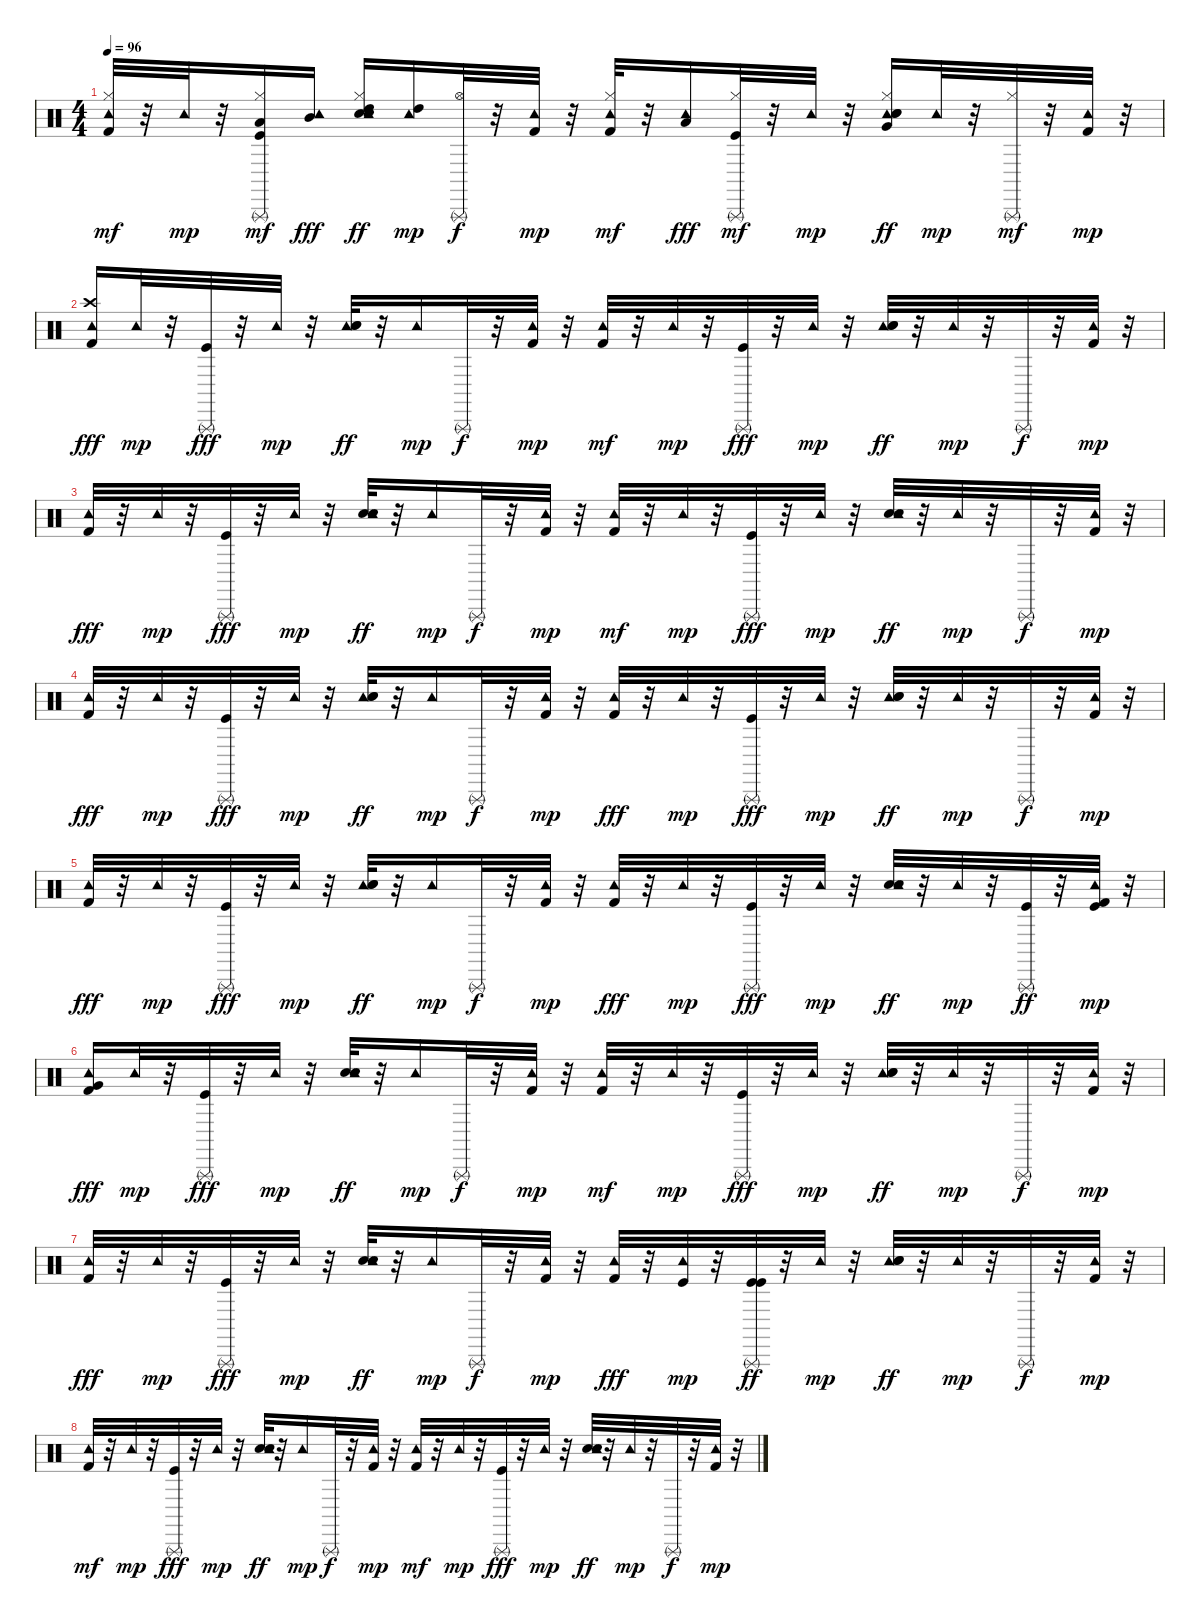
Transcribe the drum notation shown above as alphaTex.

\track "" {instrument percussion}
\staff {score}
\articulation defaults
\ts (4 4)
\tempo 96
\clef neutral
\ks c
("Hi-Hat (closed)" "Kick (hit) 2" "Tambourine (hit)").32{dy mf} r.32 "Tambourine (hit)".32{dy mp} r.32 ("Low Tom (hit)" "Kick (hit)" "Triangle (rnute)" "Hi-Hat (closed)").16{dy mf} ("Tambourine (hit)" "Mid Tom (hit)").16{dy fff} ("Snare (hit) 2" "Tambourine (hit)" "Hi-Hat (closed)" "High Tom (hit)" "Hand Clap (hit)").16{dy ff} ("High Tom (hit)" "Tambourine (hit)").16{dy mp} ("Triangle (rnute)" "Hi-Hat (open)").32{dy f} r.32 ("Tambourine (hit)" "Kick (hit) 2").32{dy mp} r.32 ("Hi-Hat (closed)" "Kick (hit) 2" "Tambourine (hit)").32{dy mf} r.32 ("Tambourine (hit)" "Low Tom (hit)").16{dy fff} ("Kick (hit)" "Triangle (rnute)" "Hi-Hat (closed)").32{dy mf} r.32 "Tambourine (hit)".32{dy mp} r.32 ("Hi-Hat (closed)" "Tambourine (hit)" "Very Low Tom (hit)" "Snare (hit) 2" "Hand Clap (hit)").16{dy ff} "Tambourine (hit)".32{dy mp} r.32 ("Hi-Hat (closed)" "Triangle (rnute)").32{dy mf} r.32 ("Tambourine (hit)" "Kick (hit) 2").32{dy mp} r.32 |
("Tambourine (hit)" "Kick (hit) 2" "Crash high (hit)").16{dy fff} "Tambourine (hit)".32{dy mp} r.32 ("Triangle (rnute)" "Kick (hit)").32{dy fff} r.32 "Tambourine (hit)".32{dy mp} r.32 ("Tambourine (hit)" "Electric Snare (hit)" "Hand Clap (hit)").32{dy ff} r.32 "Tambourine (hit)".16{dy mp} "Triangle (rnute)".32{dy f} r.32 ("Kick (hit) 2" "Tambourine (hit)").32{dy mp} r.32 ("Kick (hit) 2" "Tambourine (hit)").32{dy mf} r.32 "Tambourine (hit)".32{dy mp} r.32 ("Kick (hit)" "Triangle (rnute)").32{dy fff} r.32 "Tambourine (hit)".32{dy mp} r.32 ("Tambourine (hit)" "Electric Snare (hit)" "Hand Clap (hit)").32{dy ff} r.32 "Tambourine (hit)".32{dy mp} r.32 "Triangle (rnute)".32{dy f} r.32 ("Kick (hit) 2" "Tambourine (hit)").32{dy mp} r.32 |
("Tambourine (hit)" "Kick (hit) 2").32{dy fff} r.32 "Tambourine (hit)".32{dy mp} r.32 ("Triangle (rnute)" "Kick (hit)").32{dy fff} r.32 "Tambourine (hit)".32{dy mp} r.32 ("Electric Snare (hit)" "Tambourine (hit)" "Hand Clap (hit)").32{dy ff} r.32 "Tambourine (hit)".16{dy mp} "Triangle (rnute)".32{dy f} r.32 ("Tambourine (hit)" "Kick (hit) 2").32{dy mp} r.32 ("Kick (hit) 2" "Tambourine (hit)").32{dy mf} r.32 "Tambourine (hit)".32{dy mp} r.32 ("Kick (hit)" "Triangle (rnute)").32{dy fff} r.32 "Tambourine (hit)".32{dy mp} r.32 ("Electric Snare (hit)" "Tambourine (hit)" "Hand Clap (hit)").32{dy ff} r.32 "Tambourine (hit)".32{dy mp} r.32 "Triangle (rnute)".32{dy f} r.32 ("Tambourine (hit)" "Kick (hit) 2").32{dy mp} r.32 |
("Tambourine (hit)" "Kick (hit) 2").32{dy fff} r.32 "Tambourine (hit)".32{dy mp} r.32 ("Kick (hit)" "Triangle (rnute)").32{dy fff} r.32 "Tambourine (hit)".32{dy mp} r.32 ("Tambourine (hit)" "Electric Snare (hit)" "Hand Clap (hit)").32{dy ff} r.32 "Tambourine (hit)".16{dy mp} "Triangle (rnute)".32{dy f} r.32 ("Tambourine (hit)" "Kick (hit) 2").32{dy mp} r.32 ("Tambourine (hit)" "Kick (hit) 2").32{dy fff} r.32 "Tambourine (hit)".32{dy mp} r.32 ("Kick (hit)" "Triangle (rnute)").32{dy fff} r.32 "Tambourine (hit)".32{dy mp} r.32 ("Tambourine (hit)" "Electric Snare (hit)" "Hand Clap (hit)").32{dy ff} r.32 "Tambourine (hit)".32{dy mp} r.32 "Triangle (rnute)".32{dy f} r.32 ("Tambourine (hit)" "Kick (hit) 2").32{dy mp} r.32 |
("Tambourine (hit)" "Kick (hit) 2").32{dy fff} r.32 "Tambourine (hit)".32{dy mp} r.32 ("Kick (hit)" "Triangle (rnute)").32{dy fff} r.32 "Tambourine (hit)".32{dy mp} r.32 ("Tambourine (hit)" "Electric Snare (hit)" "Hand Clap (hit)").32{dy ff} r.32 "Tambourine (hit)".16{dy mp} "Triangle (rnute)".32{dy f} r.32 ("Tambourine (hit)" "Kick (hit) 2").32{dy mp} r.32 ("Tambourine (hit)" "Kick (hit) 2").32{dy fff} r.32 "Tambourine (hit)".32{dy mp} r.32 ("Kick (hit)" "Triangle (rnute)").32{dy fff} r.32 "Tambourine (hit)".32{dy mp} r.32 ("Electric Snare (hit)" "Tambourine (hit)" "Hand Clap (hit)").32{dy ff} r.32 "Tambourine (hit)".32{dy mp} r.32 ("Kick (hit)" "Triangle (rnute)").32{dy ff} r.32 ("Kick (hit) 2" "Kick (hit)" "Tambourine (hit)").32{dy mp} r.32 |
("Very Low Tom (hit)" "Tambourine (hit)" "Kick (hit) 2").16{dy fff} "Tambourine (hit)".32{dy mp} r.32 ("Triangle (rnute)" "Kick (hit)").32{dy fff} r.32 "Tambourine (hit)".32{dy mp} r.32 ("Electric Snare (hit)" "Tambourine (hit)" "Hand Clap (hit)").32{dy ff} r.32 "Tambourine (hit)".16{dy mp} "Triangle (rnute)".32{dy f} r.32 ("Kick (hit) 2" "Tambourine (hit)").32{dy mp} r.32 ("Kick (hit) 2" "Tambourine (hit)").32{dy mf} r.32 "Tambourine (hit)".32{dy mp} r.32 ("Kick (hit)" "Triangle (rnute)").32{dy fff} r.32 "Tambourine (hit)".32{dy mp} r.32 ("Tambourine (hit)" "Electric Snare (hit)" "Hand Clap (hit)").32{dy ff} r.32 "Tambourine (hit)".32{dy mp} r.32 "Triangle (rnute)".32{dy f} r.32 ("Kick (hit) 2" "Tambourine (hit)").32{dy mp} r.32 |
("Tambourine (hit)" "Kick (hit) 2").32{dy fff} r.32 "Tambourine (hit)".32{dy mp} r.32 ("Kick (hit)" "Triangle (rnute)").32{dy fff} r.32 "Tambourine (hit)".32{dy mp} r.32 ("Electric Snare (hit)" "Tambourine (hit)" "Hand Clap (hit)").32{dy ff} r.32 "Tambourine (hit)".16{dy mp} "Triangle (rnute)".32{dy f} r.32 ("Kick (hit) 2" "Tambourine (hit)").32{dy mp} r.32 ("Tambourine (hit)" "Kick (hit) 2").32{dy fff} r.32 ("Tambourine (hit)" "Kick (hit)").32{dy mp} r.32 ("Triangle (rnute)" "Kick (hit)" "Kick (hit)").32{dy ff} r.32 "Tambourine (hit)".32{dy mp} r.32 ("Tambourine (hit)" "Electric Snare (hit)" "Hand Clap (hit)").32{dy ff} r.32 "Tambourine (hit)".32{dy mp} r.32 "Triangle (rnute)".32{dy f} r.32 ("Kick (hit) 2" "Tambourine (hit)").32{dy mp} r.32 |
("Kick (hit) 2" "Tambourine (hit)").32{dy mf} r.32 "Tambourine (hit)".32{dy mp} r.32 ("Kick (hit)" "Triangle (rnute)").32{dy fff} r.32 "Tambourine (hit)".32{dy mp} r.32 ("Electric Snare (hit)" "Tambourine (hit)" "Hand Clap (hit)").32{dy ff} r.32 "Tambourine (hit)".16{dy mp} "Triangle (rnute)".32{dy f} r.32 ("Kick (hit) 2" "Tambourine (hit)").32{dy mp} r.32 ("Kick (hit) 2" "Tambourine (hit)").32{dy mf} r.32 "Tambourine (hit)".32{dy mp} r.32 ("Kick (hit)" "Triangle (rnute)").32{dy fff} r.32 "Tambourine (hit)".32{dy mp} r.32 ("Electric Snare (hit)" "Tambourine (hit)" "Hand Clap (hit)").32{dy ff} r.32 "Tambourine (hit)".32{dy mp} r.32 "Triangle (rnute)".32{dy f} r.32 ("Tambourine (hit)" "Kick (hit) 2").32{dy mp} r.32
